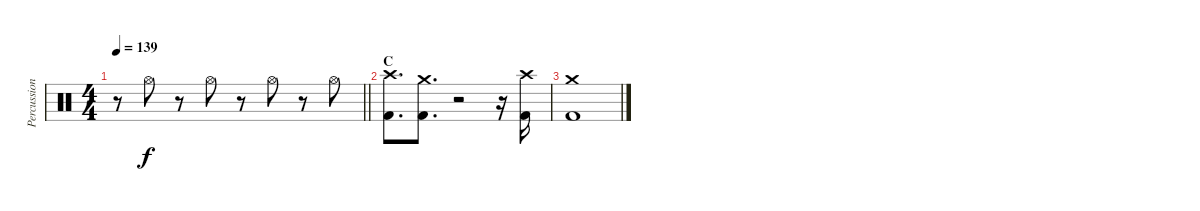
\track ("Percussion" "Percussion") {instrument percussion}
\staff {score}
\articulation defaults
\ts (4 4)
\tempo 139
\clef neutral
\barLineRight lightlight
\ks c
r.8{dy f} "Hi-Hat (open)".8 r.8 "Hi-Hat (open)".8 r.8 "Hi-Hat (open)".8 r.8 "Hi-Hat (open)".8 |
\section ("" "C")
("Crash high (hit)" "Kick (hit) 2").8{d} ("Crash medium (hit)" "Kick (hit) 2").8{d} r.2 r.16 ("Crash high (hit)" "Kick (hit) 2").16 |
("Crash medium (hit)" "Kick (hit) 2").1
